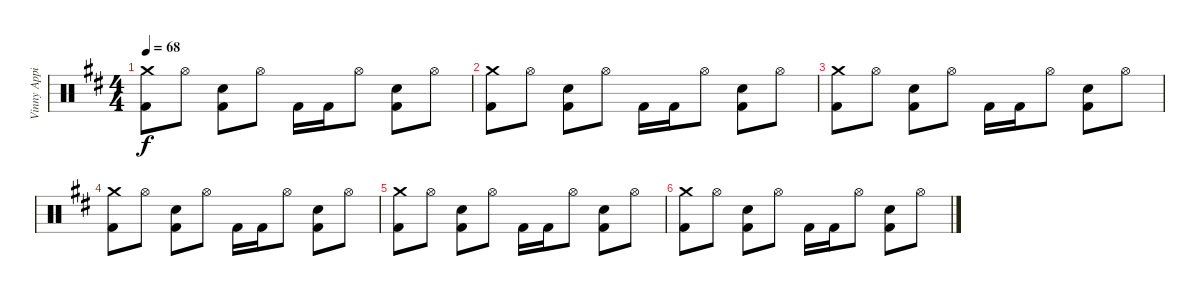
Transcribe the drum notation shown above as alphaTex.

\track ("Vinny Appice" "Vinny Appi") {instrument percussion}
\staff {score}
\articulation defaults
\ts (4 4)
\tempo 68
\clef neutral
\ks d
("Crash medium (hit)" "Kick (hit) 2").8{dy f} "Hi-Hat (open)".8 ("Snare (hit) 2" "Kick (hit) 2").8 "Hi-Hat (open)".8 "Kick (hit) 2".16 "Kick (hit) 2".16 "Hi-Hat (open)".8 ("Snare (hit) 2" "Kick (hit) 2").8 "Hi-Hat (open)".8 |
("Crash medium (hit)" "Kick (hit) 2").8 "Hi-Hat (open)".8 ("Snare (hit) 2" "Kick (hit) 2").8 "Hi-Hat (open)".8 "Kick (hit) 2".16 "Kick (hit) 2".16 "Hi-Hat (open)".8 ("Snare (hit) 2" "Kick (hit) 2").8 "Hi-Hat (open)".8 |
("Crash medium (hit)" "Kick (hit) 2").8 "Hi-Hat (open)".8 ("Snare (hit) 2" "Kick (hit) 2").8 "Hi-Hat (open)".8 "Kick (hit) 2".16 "Kick (hit) 2".16 "Hi-Hat (open)".8 ("Snare (hit) 2" "Kick (hit) 2").8 "Hi-Hat (open)".8 |
("Crash medium (hit)" "Kick (hit) 2").8 "Hi-Hat (open)".8 ("Snare (hit) 2" "Kick (hit) 2").8 "Hi-Hat (open)".8 "Kick (hit) 2".16 "Kick (hit) 2".16 "Hi-Hat (open)".8 ("Snare (hit) 2" "Kick (hit) 2").8 "Hi-Hat (open)".8 |
("Crash medium (hit)" "Kick (hit) 2").8 "Hi-Hat (open)".8 ("Snare (hit) 2" "Kick (hit) 2").8 "Hi-Hat (open)".8 "Kick (hit) 2".16 "Kick (hit) 2".16 "Hi-Hat (open)".8 ("Snare (hit) 2" "Kick (hit) 2").8 "Hi-Hat (open)".8 |
("Crash medium (hit)" "Kick (hit) 2").8 "Hi-Hat (open)".8 ("Snare (hit) 2" "Kick (hit) 2").8 "Hi-Hat (open)".8 "Kick (hit) 2".16 "Kick (hit) 2".16 "Hi-Hat (open)".8 ("Snare (hit) 2" "Kick (hit) 2").8 "Hi-Hat (open)".8
